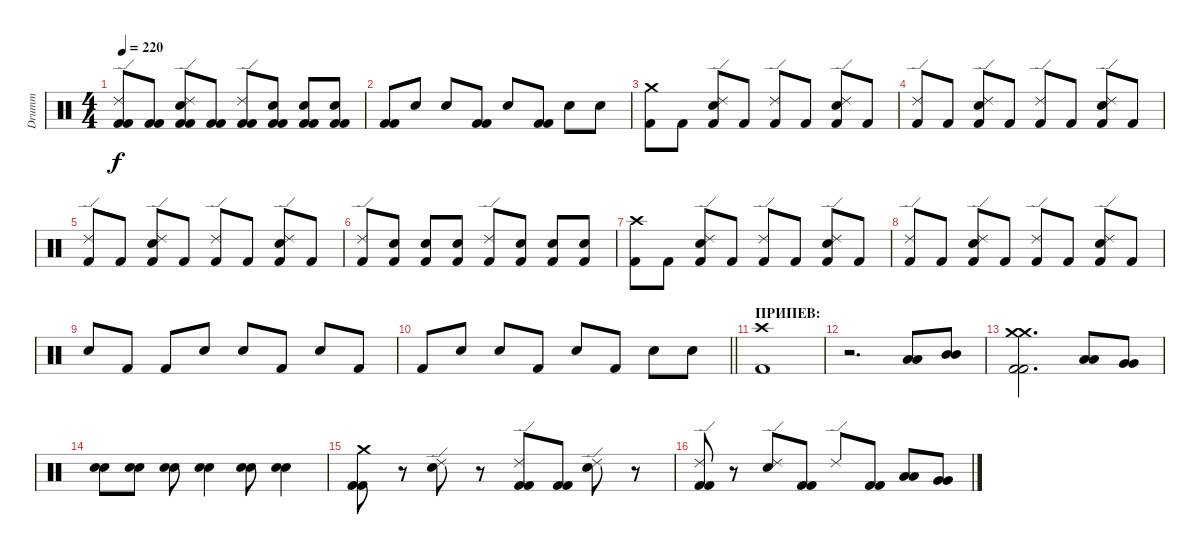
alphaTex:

\track ("Drumm" "Drumm") {instrument percussion}
\staff {score}
\articulation defaults
\ts (4 4)
\tempo 220
\clef neutral
\ks c
("Ride (edge) 2" "Kick (hit) 2" "Kick (hit) 2").8{dy f} ("Kick (hit) 2" "Kick (hit) 2").8 ("Ride (edge) 2" "Kick (hit) 2" "Snare (hit) 2" "Kick (hit) 2").8 ("Kick (hit) 2" "Kick (hit) 2").8 ("Ride (edge) 2" "Kick (hit) 2" "Kick (hit) 2").8 ("Snare (hit) 2" "Kick (hit) 2" "Kick (hit) 2").8 ("Snare (hit) 2" "Kick (hit) 2" "Kick (hit) 2").8 ("Snare (hit) 2" "Kick (hit) 2" "Kick (hit) 2").8 |
("Kick (hit) 2" "Kick (hit) 2").8 "Snare (hit) 2".8 "Snare (hit) 2".8 ("Kick (hit) 2" "Kick (hit) 2").8 "Snare (hit) 2".8 ("Kick (hit) 2" "Kick (hit) 2").8 "Snare (hit) 2".8 "Snare (hit) 2".8 |
("Crash medium (hit)" "Kick (hit) 2").8 "Kick (hit) 2".8 ("Ride (edge) 2" "Snare (hit) 2" "Kick (hit) 2").8 "Kick (hit) 2".8 ("Ride (edge) 2" "Kick (hit) 2").8 "Kick (hit) 2".8 ("Ride (edge) 2" "Snare (hit) 2" "Kick (hit) 2").8 "Kick (hit) 2".8 |
("Ride (edge) 2" "Kick (hit) 2").8 "Kick (hit) 2".8 ("Ride (edge) 2" "Snare (hit) 2" "Kick (hit) 2").8 "Kick (hit) 2".8 ("Ride (edge) 2" "Kick (hit) 2").8 "Kick (hit) 2".8 ("Ride (edge) 2" "Snare (hit) 2" "Kick (hit) 2").8 "Kick (hit) 2".8 |
("Ride (edge) 2" "Kick (hit) 2").8 "Kick (hit) 2".8 ("Ride (edge) 2" "Snare (hit) 2" "Kick (hit) 2").8 "Kick (hit) 2".8 ("Ride (edge) 2" "Kick (hit) 2").8 "Kick (hit) 2".8 ("Ride (edge) 2" "Snare (hit) 2" "Kick (hit) 2").8 "Kick (hit) 2".8 |
("Ride (edge) 2" "Kick (hit) 2").8 ("Snare (hit) 2" "Kick (hit) 2").8 ("Snare (hit) 2" "Kick (hit) 2").8 ("Snare (hit) 2" "Kick (hit) 2").8 ("Ride (edge) 2" "Kick (hit) 2").8 ("Snare (hit) 2" "Kick (hit) 2").8 ("Snare (hit) 2" "Kick (hit) 2").8 ("Snare (hit) 2" "Kick (hit) 2").8 |
("Crash high (hit)" "Kick (hit) 2").8 "Kick (hit) 2".8 ("Ride (edge) 2" "Snare (hit) 2" "Kick (hit) 2").8 "Kick (hit) 2".8 ("Ride (edge) 2" "Kick (hit) 2").8 "Kick (hit) 2".8 ("Ride (edge) 2" "Snare (hit) 2" "Kick (hit) 2").8 "Kick (hit) 2".8 |
("Ride (edge) 2" "Kick (hit) 2").8 "Kick (hit) 2".8 ("Ride (edge) 2" "Snare (hit) 2" "Kick (hit) 2").8 "Kick (hit) 2".8 ("Ride (edge) 2" "Kick (hit) 2").8 "Kick (hit) 2".8 ("Ride (edge) 2" "Snare (hit) 2" "Kick (hit) 2").8 "Kick (hit) 2".8 |
"Snare (hit) 2".8 "Kick (hit) 2".8 "Kick (hit) 2".8 "Snare (hit) 2".8 "Snare (hit) 2".8 "Kick (hit) 2".8 "Snare (hit) 2".8 "Kick (hit) 2".8 |
\barLineRight lightlight "Kick (hit) 2".8 "Snare (hit) 2".8 "Snare (hit) 2".8 "Kick (hit) 2".8 "Snare (hit) 2".8 "Kick (hit) 2".8 "Snare (hit) 2".8 "Snare (hit) 2".8
|
\section ("" "ПРИПЕВ:")
("Crash high (hit)" "Kick (hit) 2").1 |
r.2{d} ("Low Tom (hit)" "Low Tom (hit)").8 ("Mid Tom (hit)" "Mid Tom (hit)").8 |
("Crash medium (hit)" "Crash medium (hit)" "Kick (hit) 2" "Kick (hit) 2").2{d} ("Low Tom (hit)" "Low Tom (hit)").8 ("Very Low Tom (hit)" "Very Low Tom (hit)").8 |
("Snare (hit) 2" "Snare (hit) 2").8 ("Snare (hit) 2" "Snare (hit) 2").8 ("Snare (hit) 2" "Snare (hit) 2").8 ("Snare (hit) 2" "Snare (hit) 2").4 ("Snare (hit) 2" "Snare (hit) 2").8 ("Snare (hit) 2" "Snare (hit) 2").4 |
("Crash medium (hit)" "Kick (hit) 2" "Kick (hit) 2").8 r.8 ("Ride (edge) 2" "Snare (hit) 2").8 r.8 ("Ride (edge) 2" "Kick (hit) 2" "Kick (hit) 2").8 ("Kick (hit) 2" "Kick (hit) 2").8 ("Ride (edge) 2" "Snare (hit) 2").8 r.8 |
("Ride (edge) 2" "Kick (hit) 2" "Kick (hit) 2").8 r.8 ("Ride (edge) 2" "Snare (hit) 2").8 ("Kick (hit) 2" "Kick (hit) 2").8 "Ride (edge) 2".8 ("Kick (hit) 2" "Kick (hit) 2").8 ("Low Tom (hit)" "Low Tom (hit)").8 ("Very Low Tom (hit)" "Very Low Tom (hit)").8
